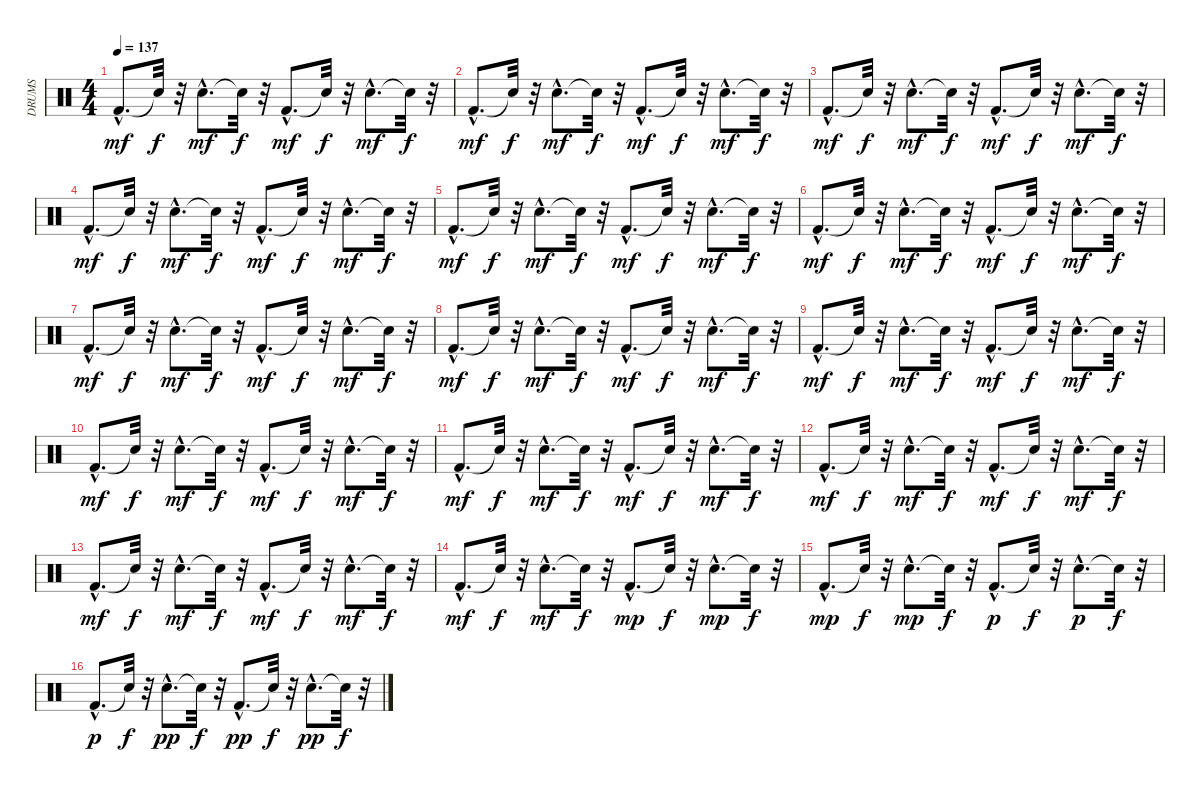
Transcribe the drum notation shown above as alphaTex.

\track ("DRUMS" "DRUMS") {instrument percussion}
\staff {score}
\articulation defaults
\ts (4 4)
\tempo 137
\clef neutral
\ks c "Kick (hit) 2"{hac}.8{d dy mf} "Snare (hit)"{t}.32{dy f}
r.32 "Snare (hit) 2"{hac}.8{d dy mf} "Snare (hit)"{t}.32{dy f} r.32 "Kick (hit) 2"{hac}.8{d dy mf} "Snare (hit)"{t}.32{dy f} r.32 "Snare (hit) 2"{hac}.8{d dy mf} "Snare (hit)"{t}.32{dy f} r.32 |
"Kick (hit) 2"{hac}.8{d dy mf} "Snare (hit)"{t}.32{dy f} r.32 "Snare (hit) 2"{hac}.8{d dy mf} "Snare (hit)"{t}.32{dy f} r.32 "Kick (hit) 2"{hac}.8{d dy mf} "Snare (hit)"{t}.32{dy f} r.32 "Snare (hit) 2"{hac}.8{d dy mf} "Snare (hit)"{t}.32{dy f} r.32 |
"Kick (hit) 2"{hac}.8{d dy mf} "Snare (hit)"{t}.32{dy f} r.32 "Snare (hit) 2"{hac}.8{d dy mf} "Snare (hit)"{t}.32{dy f} r.32 "Kick (hit) 2"{hac}.8{d dy mf} "Snare (hit)"{t}.32{dy f} r.32 "Snare (hit) 2"{hac}.8{d dy mf} "Snare (hit)"{t}.32{dy f} r.32 |
"Kick (hit) 2"{hac}.8{d dy mf} "Snare (hit)"{t}.32{dy f} r.32 "Snare (hit) 2"{hac}.8{d dy mf} "Snare (hit)"{t}.32{dy f} r.32 "Kick (hit) 2"{hac}.8{d dy mf} "Snare (hit)"{t}.32{dy f} r.32 "Snare (hit) 2"{hac}.8{d dy mf} "Snare (hit)"{t}.32{dy f} r.32 |
"Kick (hit) 2"{hac}.8{d dy mf} "Snare (hit)"{t}.32{dy f} r.32 "Snare (hit) 2"{hac}.8{d dy mf} "Snare (hit)"{t}.32{dy f} r.32 "Kick (hit) 2"{hac}.8{d dy mf} "Snare (hit)"{t}.32{dy f} r.32 "Snare (hit) 2"{hac}.8{d dy mf} "Snare (hit)"{t}.32{dy f} r.32 |
"Kick (hit) 2"{hac}.8{d dy mf} "Snare (hit)"{t}.32{dy f} r.32 "Snare (hit) 2"{hac}.8{d dy mf} "Snare (hit)"{t}.32{dy f} r.32 "Kick (hit) 2"{hac}.8{d dy mf} "Snare (hit)"{t}.32{dy f} r.32 "Snare (hit) 2"{hac}.8{d dy mf} "Snare (hit)"{t}.32{dy f} r.32 |
"Kick (hit) 2"{hac}.8{d dy mf} "Snare (hit)"{t}.32{dy f} r.32 "Snare (hit) 2"{hac}.8{d dy mf} "Snare (hit)"{t}.32{dy f} r.32 "Kick (hit) 2"{hac}.8{d dy mf} "Snare (hit)"{t}.32{dy f} r.32 "Snare (hit) 2"{hac}.8{d dy mf} "Snare (hit)"{t}.32{dy f} r.32 |
"Kick (hit) 2"{hac}.8{d dy mf} "Snare (hit)"{t}.32{dy f} r.32 "Snare (hit) 2"{hac}.8{d dy mf} "Snare (hit)"{t}.32{dy f} r.32 "Kick (hit) 2"{hac}.8{d dy mf} "Snare (hit)"{t}.32{dy f} r.32 "Snare (hit) 2"{hac}.8{d dy mf} "Snare (hit)"{t}.32{dy f} r.32 |
"Kick (hit) 2"{hac}.8{d dy mf} "Snare (hit)"{t}.32{dy f} r.32 "Snare (hit) 2"{hac}.8{d dy mf} "Snare (hit)"{t}.32{dy f} r.32 "Kick (hit) 2"{hac}.8{d dy mf} "Snare (hit)"{t}.32{dy f} r.32 "Snare (hit) 2"{hac}.8{d dy mf} "Snare (hit)"{t}.32{dy f} r.32 |
"Kick (hit) 2"{hac}.8{d dy mf} "Snare (hit)"{t}.32{dy f} r.32 "Snare (hit) 2"{hac}.8{d dy mf} "Snare (hit)"{t}.32{dy f} r.32 "Kick (hit) 2"{hac}.8{d dy mf} "Snare (hit)"{t}.32{dy f} r.32 "Snare (hit) 2"{hac}.8{d dy mf} "Snare (hit)"{t}.32{dy f} r.32 |
"Kick (hit) 2"{hac}.8{d dy mf} "Snare (hit)"{t}.32{dy f} r.32 "Snare (hit) 2"{hac}.8{d dy mf} "Snare (hit)"{t}.32{dy f} r.32 "Kick (hit) 2"{hac}.8{d dy mf} "Snare (hit)"{t}.32{dy f} r.32 "Snare (hit) 2"{hac}.8{d dy mf} "Snare (hit)"{t}.32{dy f} r.32 |
"Kick (hit) 2"{hac}.8{d dy mf} "Snare (hit)"{t}.32{dy f} r.32 "Snare (hit) 2"{hac}.8{d dy mf} "Snare (hit)"{t}.32{dy f} r.32 "Kick (hit) 2"{hac}.8{d dy mf} "Snare (hit)"{t}.32{dy f} r.32 "Snare (hit) 2"{hac}.8{d dy mf} "Snare (hit)"{t}.32{dy f} r.32 |
"Kick (hit) 2"{hac}.8{d dy mf} "Snare (hit)"{t}.32{dy f} r.32 "Snare (hit) 2"{hac}.8{d dy mf} "Snare (hit)"{t}.32{dy f} r.32 "Kick (hit) 2"{hac}.8{d dy mf} "Snare (hit)"{t}.32{dy f} r.32 "Snare (hit) 2"{hac}.8{d dy mf} "Snare (hit)"{t}.32{dy f} r.32 |
"Kick (hit) 2"{hac}.8{d dy mf} "Snare (hit)"{t}.32{dy f} r.32 "Snare (hit) 2"{hac}.8{d dy mf} "Snare (hit)"{t}.32{dy f} r.32 "Kick (hit) 2"{hac}.8{d dy mp} "Snare (hit)"{t}.32{dy f} r.32 "Snare (hit) 2"{hac}.8{d dy mp} "Snare (hit)"{t}.32{dy f} r.32 |
"Kick (hit) 2"{hac}.8{d dy mp} "Snare (hit)"{t}.32{dy f} r.32 "Snare (hit) 2"{hac}.8{d dy mp} "Snare (hit)"{t}.32{dy f} r.32 "Kick (hit) 2"{hac}.8{d dy p} "Snare (hit)"{t}.32{dy f} r.32 "Snare (hit) 2"{hac}.8{d dy p} "Snare (hit)"{t}.32{dy f} r.32 |
"Kick (hit) 2"{hac}.8{d dy p} "Snare (hit)"{t}.32{dy f} r.32 "Snare (hit) 2"{hac}.8{d dy pp} "Snare (hit)"{t}.32{dy f} r.32 "Kick (hit) 2"{hac}.8{d dy pp} "Snare (hit)"{t}.32{dy f} r.32 "Snare (hit) 2"{hac}.8{d dy pp} "Snare (hit)"{t}.32{dy f} r.32
